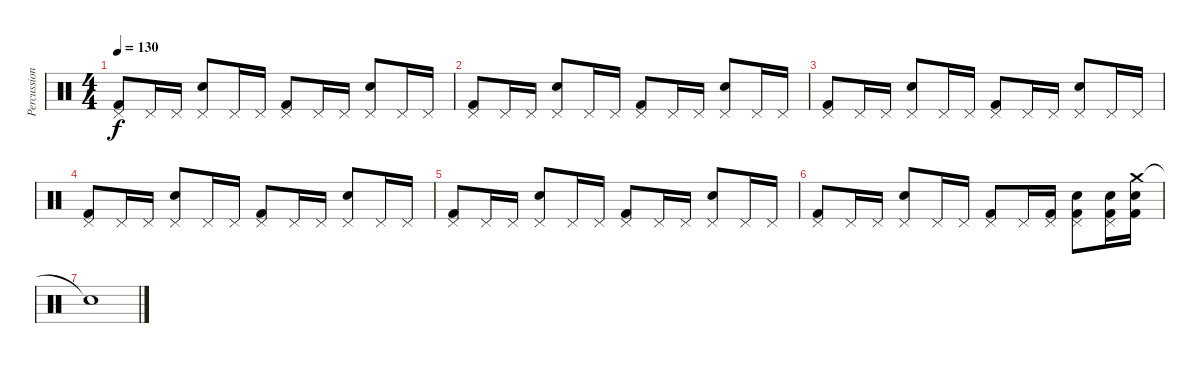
\track ("Percussion" "Percussion") {instrument percussion}
\staff {score}
\articulation defaults
\ts (4 4)
\tempo 130
\clef neutral
\ks c
("Pedal Hi-Hat (hit)" "Kick (hit) 2").8{dy f} "Pedal Hi-Hat (hit)".16 "Pedal Hi-Hat (hit)".16 ("Pedal Hi-Hat (hit)" "Snare (hit) 2").8 "Pedal Hi-Hat (hit)".16 "Pedal Hi-Hat (hit)".16 ("Pedal Hi-Hat (hit)" "Kick (hit) 2").8 "Pedal Hi-Hat (hit)".16 "Pedal Hi-Hat (hit)".16 ("Pedal Hi-Hat (hit)" "Snare (hit) 2").8 "Pedal Hi-Hat (hit)".16 "Pedal Hi-Hat (hit)".16 |
("Pedal Hi-Hat (hit)" "Kick (hit) 2").8 "Pedal Hi-Hat (hit)".16 "Pedal Hi-Hat (hit)".16 ("Pedal Hi-Hat (hit)" "Snare (hit) 2").8 "Pedal Hi-Hat (hit)".16 "Pedal Hi-Hat (hit)".16 ("Pedal Hi-Hat (hit)" "Kick (hit) 2").8 "Pedal Hi-Hat (hit)".16 "Pedal Hi-Hat (hit)".16 ("Pedal Hi-Hat (hit)" "Snare (hit) 2").8 "Pedal Hi-Hat (hit)".16 "Pedal Hi-Hat (hit)".16 |
("Pedal Hi-Hat (hit)" "Kick (hit) 2").8 "Pedal Hi-Hat (hit)".16 "Pedal Hi-Hat (hit)".16 ("Pedal Hi-Hat (hit)" "Snare (hit) 2").8 "Pedal Hi-Hat (hit)".16 "Pedal Hi-Hat (hit)".16 ("Pedal Hi-Hat (hit)" "Kick (hit) 2").8 "Pedal Hi-Hat (hit)".16 "Pedal Hi-Hat (hit)".16 ("Pedal Hi-Hat (hit)" "Snare (hit) 2").8 "Pedal Hi-Hat (hit)".16 "Pedal Hi-Hat (hit)".16 |
("Pedal Hi-Hat (hit)" "Kick (hit) 2").8 "Pedal Hi-Hat (hit)".16 "Pedal Hi-Hat (hit)".16 ("Pedal Hi-Hat (hit)" "Snare (hit) 2").8 "Pedal Hi-Hat (hit)".16 "Pedal Hi-Hat (hit)".16 ("Pedal Hi-Hat (hit)" "Kick (hit) 2").8 "Pedal Hi-Hat (hit)".16 "Pedal Hi-Hat (hit)".16 ("Pedal Hi-Hat (hit)" "Snare (hit) 2").8 "Pedal Hi-Hat (hit)".16 "Pedal Hi-Hat (hit)".16 |
("Pedal Hi-Hat (hit)" "Kick (hit) 2").8 "Pedal Hi-Hat (hit)".16 "Pedal Hi-Hat (hit)".16 ("Pedal Hi-Hat (hit)" "Snare (hit) 2").8 "Pedal Hi-Hat (hit)".16 "Pedal Hi-Hat (hit)".16 ("Pedal Hi-Hat (hit)" "Kick (hit) 2").8 "Pedal Hi-Hat (hit)".16 "Pedal Hi-Hat (hit)".16 ("Pedal Hi-Hat (hit)" "Snare (hit) 2").8 "Pedal Hi-Hat (hit)".16 "Pedal Hi-Hat (hit)".16 |
("Pedal Hi-Hat (hit)" "Kick (hit) 2").8 "Pedal Hi-Hat (hit)".16 "Pedal Hi-Hat (hit)".16 ("Pedal Hi-Hat (hit)" "Snare (hit) 2").8 "Pedal Hi-Hat (hit)".16 "Pedal Hi-Hat (hit)".16 ("Pedal Hi-Hat (hit)" "Kick (hit) 2").8 "Pedal Hi-Hat (hit)".16 ("Pedal Hi-Hat (hit)" "Kick (hit) 2").16 ("Pedal Hi-Hat (hit)" "Snare (hit) 2" "Kick (hit) 2").8 ("Pedal Hi-Hat (hit)" "Snare (hit) 2" "Kick (hit) 2").16 ("Crash medium (hit)" "Snare (hit) 2" "Kick (hit) 2").16 |
"Snare (hit)"{t}.1
